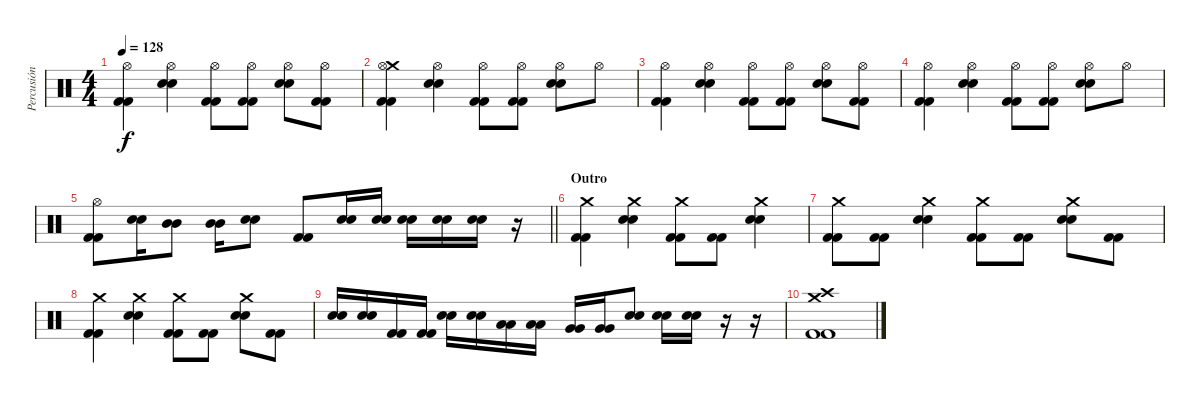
\track ("Percusión" "Percusión") {instrument percussion}
\staff {score}
\articulation defaults
\ts (4 4)
\tempo 128
\clef neutral
\ks c
("Hi-Hat (open)" "Kick (hit) 2" "Kick (hit) 2").4{dy f} ("Hi-Hat (open)" "Electric Snare (hit)" "Electric Snare (hit)").4 ("Hi-Hat (open)" "Kick (hit) 2" "Kick (hit) 2").8 ("Hi-Hat (open)" "Kick (hit) 2" "Kick (hit) 2").8 ("Hi-Hat (open)" "Electric Snare (hit)" "Electric Snare (hit)").8 ("Hi-Hat (open)" "Kick (hit) 2" "Kick (hit) 2").8 |
("Crash medium (hit)" "Hi-Hat (open)" "Kick (hit) 2" "Kick (hit) 2").4 ("Hi-Hat (open)" "Electric Snare (hit)" "Electric Snare (hit)").4 ("Hi-Hat (open)" "Kick (hit) 2" "Kick (hit) 2").8 ("Hi-Hat (open)" "Kick (hit) 2" "Kick (hit) 2").8 ("Hi-Hat (open)" "Electric Snare (hit)" "Electric Snare (hit)").8 "Hi-Hat (open)".8 |
("Hi-Hat (open)" "Kick (hit) 2" "Kick (hit) 2").4 ("Hi-Hat (open)" "Electric Snare (hit)" "Electric Snare (hit)").4 ("Hi-Hat (open)" "Kick (hit) 2" "Kick (hit) 2").8 ("Hi-Hat (open)" "Kick (hit) 2" "Kick (hit) 2").8 ("Hi-Hat (open)" "Electric Snare (hit)" "Electric Snare (hit)").8 ("Hi-Hat (open)" "Kick (hit) 2" "Kick (hit) 2").8 |
("Hi-Hat (open)" "Kick (hit) 2" "Kick (hit) 2").4 ("Hi-Hat (open)" "Electric Snare (hit)" "Electric Snare (hit)").4 ("Hi-Hat (open)" "Kick (hit) 2" "Kick (hit) 2").8 ("Hi-Hat (open)" "Kick (hit) 2" "Kick (hit) 2").8 ("Hi-Hat (open)" "Electric Snare (hit)" "Electric Snare (hit)").8 "Hi-Hat (open)".8 |
\barLineRight lightlight
("Hi-Hat (open)" "Kick (hit) 2" "Kick (hit) 2").8 ("Electric Snare (hit)" "Electric Snare (hit)").16 ("Mid Tom (hit)" "Mid Tom (hit)").8 ("Mid Tom (hit)" "Mid Tom (hit)").16 ("Electric Snare (hit)" "Electric Snare (hit)").8 ("Kick (hit) 2" "Kick (hit) 2").8 ("Electric Snare (hit)" "Electric Snare (hit)").16 ("Electric Snare (hit)" "Electric Snare (hit)").16 ("Electric Snare (hit)" "Electric Snare (hit)").16 ("Electric Snare (hit)" "Electric Snare (hit)").16 ("Electric Snare (hit)" "Electric Snare (hit)").16 r.16 |
\section ("" "Outro")
("Crash medium (hit)" "Kick (hit) 2" "Kick (hit) 2").4 ("Crash medium (hit)" "Electric Snare (hit)" "Electric Snare (hit)").4 ("Crash medium (hit)" "Kick (hit) 2" "Kick (hit) 2").8 ("Kick (hit) 2" "Kick (hit) 2").8 ("Crash medium (hit)" "Electric Snare (hit)" "Electric Snare (hit)").4 |
("Crash medium (hit)" "Kick (hit) 2" "Kick (hit) 2").8 ("Kick (hit) 2" "Kick (hit) 2").8 ("Crash medium (hit)" "Electric Snare (hit)" "Electric Snare (hit)").4 ("Crash medium (hit)" "Kick (hit) 2" "Kick (hit) 2").8 ("Kick (hit) 2" "Kick (hit) 2").8 ("Crash medium (hit)" "Electric Snare (hit)" "Electric Snare (hit)").8 ("Kick (hit) 2" "Kick (hit) 2").8 |
("Crash medium (hit)" "Kick (hit) 2" "Kick (hit) 2").4 ("Crash medium (hit)" "Electric Snare (hit)" "Electric Snare (hit)").4 ("Crash medium (hit)" "Kick (hit) 2" "Kick (hit) 2").8 ("Kick (hit) 2" "Kick (hit) 2").8 ("Crash medium (hit)" "Electric Snare (hit)" "Electric Snare (hit)").8 ("Kick (hit) 2" "Kick (hit) 2").8 |
("Electric Snare (hit)" "Electric Snare (hit)").16 ("Electric Snare (hit)" "Electric Snare (hit)").16 ("Kick (hit) 2" "Kick (hit) 2").16 ("Kick (hit) 2" "Kick (hit) 2").16 ("Electric Snare (hit)" "Electric Snare (hit)").16 ("Electric Snare (hit)" "Electric Snare (hit)").16 ("Low Tom (hit)" "Low Tom (hit)").16 ("Low Tom (hit)" "Low Tom (hit)").16 ("Very Low Tom (hit)" "Very Low Tom (hit)").16 ("Very Low Tom (hit)" "Very Low Tom (hit)").16 ("Electric Snare (hit)" "Electric Snare (hit)").8 ("Electric Snare (hit)" "Electric Snare (hit)").16 ("Electric Snare (hit)" "Electric Snare (hit)").16 r.16 r.16 |
("Crash medium (hit)" "Crash high (hit)" "Kick (hit) 2" "Kick (hit) 2").1
